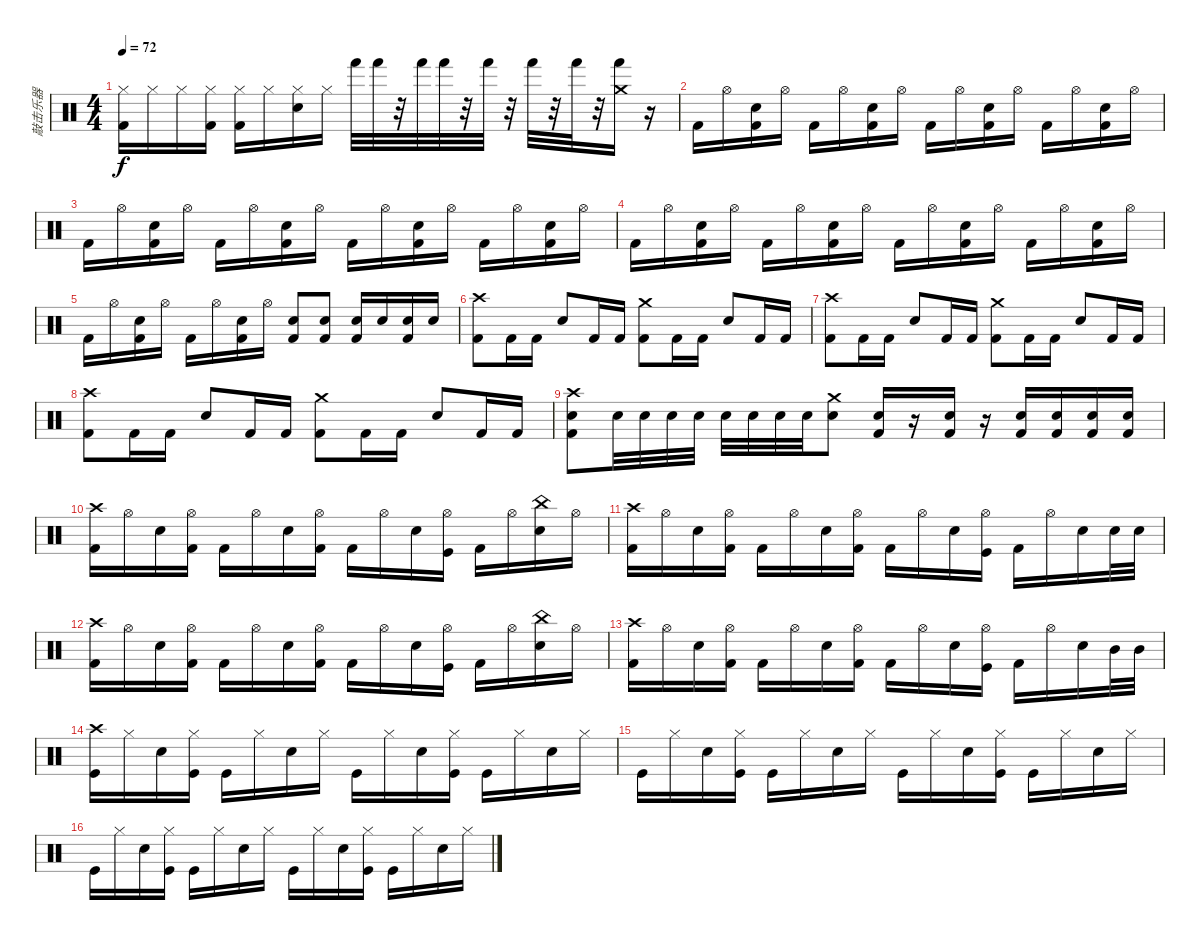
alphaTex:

\track ("敲击乐器" "敲击乐器") {instrument percussion}
\staff {score}
\articulation defaults
\ts (4 4)
\tempo 72
\clef neutral
\ks c
("Hi-Hat (closed)" "Kick (hit) 2").16{dy f} "Hi-Hat (closed)".16 "Hi-Hat (closed)".16 ("Hi-Hat (closed)" "Kick (hit) 2").16 ("Hi-Hat (closed)" "Kick (hit) 2").16 "Hi-Hat (closed)".16 ("Hi-Hat (closed)" "Snare (hit) 2").16 "Hi-Hat (closed)".16 "Hand (hit)".32 "Hand (hit)".32 r.32 "Hand (hit)".32 "Hand (hit)".32 r.32 "Hand (hit)".32 r.32 "Hand (hit)".32 r.32 "Hand (hit)".32 r.32 ("Crash medium (hit)" "Hand (hit)").16 r.16 |
"Kick (hit) 2".16 "Hi-Hat (open)".16 ("Snare (hit) 2" "Kick (hit) 2").16 "Hi-Hat (open)".16 "Kick (hit) 2".16 "Hi-Hat (open)".16 ("Snare (hit) 2" "Kick (hit) 2").16 "Hi-Hat (open)".16 "Kick (hit) 2".16 "Hi-Hat (open)".16 ("Snare (hit) 2" "Kick (hit) 2").16 "Hi-Hat (open)".16 "Kick (hit) 2".16 "Hi-Hat (open)".16 ("Snare (hit) 2" "Kick (hit) 2").16 "Hi-Hat (open)".16 |
"Kick (hit) 2".16 "Hi-Hat (open)".16 ("Snare (hit) 2" "Kick (hit) 2").16 "Hi-Hat (open)".16 "Kick (hit) 2".16 "Hi-Hat (open)".16 ("Snare (hit) 2" "Kick (hit) 2").16 "Hi-Hat (open)".16 "Kick (hit) 2".16 "Hi-Hat (open)".16 ("Snare (hit) 2" "Kick (hit) 2").16 "Hi-Hat (open)".16 "Kick (hit) 2".16 "Hi-Hat (open)".16 ("Snare (hit) 2" "Kick (hit) 2").16 "Hi-Hat (open)".16 |
"Kick (hit) 2".16 "Hi-Hat (open)".16 ("Snare (hit) 2" "Kick (hit) 2").16 "Hi-Hat (open)".16 "Kick (hit) 2".16 "Hi-Hat (open)".16 ("Snare (hit) 2" "Kick (hit) 2").16 "Hi-Hat (open)".16 "Kick (hit) 2".16 "Hi-Hat (open)".16 ("Snare (hit) 2" "Kick (hit) 2").16 "Hi-Hat (open)".16 "Kick (hit) 2".16 "Hi-Hat (open)".16 ("Snare (hit) 2" "Kick (hit) 2").16 "Hi-Hat (open)".16 |
"Kick (hit) 2".16 "Hi-Hat (open)".16 ("Snare (hit) 2" "Kick (hit) 2").16 "Hi-Hat (open)".16 "Kick (hit) 2".16 "Hi-Hat (open)".16 ("Snare (hit) 2" "Kick (hit) 2").16 "Hi-Hat (open)".16 ("Snare (hit) 2" "Kick (hit) 2").8 ("Snare (hit) 2" "Kick (hit) 2").8 ("Snare (hit) 2" "Kick (hit) 2").16 "Snare (hit) 2".16 ("Snare (hit) 2" "Kick (hit) 2").16 "Snare (hit) 2".16 |
("Crash high (hit)" "Kick (hit) 2").8 "Kick (hit) 2".16 "Kick (hit) 2".16 "Snare (hit) 2".8 "Kick (hit) 2".16 "Kick (hit) 2".16 ("Crash medium (hit)" "Kick (hit) 2").8 "Kick (hit) 2".16 "Kick (hit) 2".16 "Snare (hit) 2".8 "Kick (hit) 2".16 "Kick (hit) 2".16 |
("Crash high (hit)" "Kick (hit) 2").8 "Kick (hit) 2".16 "Kick (hit) 2".16 "Snare (hit) 2".8 "Kick (hit) 2".16 "Kick (hit) 2".16 ("Crash medium (hit)" "Kick (hit) 2").8 "Kick (hit) 2".16 "Kick (hit) 2".16 "Snare (hit) 2".8 "Kick (hit) 2".16 "Kick (hit) 2".16 |
("Crash high (hit)" "Kick (hit) 2").8 "Kick (hit) 2".16 "Kick (hit) 2".16 "Snare (hit) 2".8 "Kick (hit) 2".16 "Kick (hit) 2".16 ("Crash medium (hit)" "Kick (hit) 2").8 "Kick (hit) 2".16 "Kick (hit) 2".16 "Snare (hit) 2".8 "Kick (hit) 2".16 "Kick (hit) 2".16 |
("Crash high (hit)" "Snare (hit) 2" "Kick (hit) 2").8 "Snare (hit) 2".32{volume 8} "Snare (hit) 2".32{volume 15} "Snare (hit) 2".32 "Snare (hit) 2".32 "Snare (hit) 2".32 "Snare (hit) 2".32 "Snare (hit) 2".32 "Snare (hit) 2".32 ("Crash medium (hit)" "Snare (hit) 2").8 ("Snare (hit) 2" "Kick (hit) 2").16 r.16 ("Snare (hit) 2" "Kick (hit) 2").16 r.16 ("Snare (hit) 2" "Kick (hit) 2").16 ("Snare (hit) 2" "Kick (hit) 2").16 ("Snare (hit) 2" "Kick (hit) 2").16 ("Snare (hit) 2" "Kick (hit) 2").16 |
("Crash high (hit)" "Kick (hit) 2").16 "Hi-Hat (open)".16 "Snare (hit) 2".16 ("Hi-Hat (open)" "Kick (hit) 2").16 "Kick (hit) 2".16 "Hi-Hat (open)".16 "Snare (hit) 2".16 ("Hi-Hat (open)" "Kick (hit) 2").16 "Kick (hit) 2".16 "Hi-Hat (open)".16 "Snare (hit) 2".16 ("Hi-Hat (open)" "Kick (hit)").16 "Kick (hit) 2".16 "Hi-Hat (open)".16 ("China (hit)" "Snare (hit) 2").16 "Hi-Hat (open)".16 |
("Crash high (hit)" "Kick (hit) 2").16 "Hi-Hat (open)".16 "Snare (hit) 2".16 ("Hi-Hat (open)" "Kick (hit) 2").16 "Kick (hit) 2".16 "Hi-Hat (open)".16 "Snare (hit) 2".16 ("Hi-Hat (open)" "Kick (hit) 2").16 "Kick (hit) 2".16 "Hi-Hat (open)".16 "Snare (hit) 2".16 ("Hi-Hat (open)" "Kick (hit)").16 "Kick (hit) 2".16 "Hi-Hat (open)".16 "Snare (hit) 2".16 "Snare (hit) 2".32 "Snare (hit) 2".32 |
("Crash high (hit)" "Kick (hit) 2").16 "Hi-Hat (open)".16 "Snare (hit) 2".16 ("Hi-Hat (open)" "Kick (hit) 2").16 "Kick (hit) 2".16 "Hi-Hat (open)".16 "Snare (hit) 2".16 ("Hi-Hat (open)" "Kick (hit) 2").16 "Kick (hit) 2".16 "Hi-Hat (open)".16 "Snare (hit) 2".16 ("Hi-Hat (open)" "Kick (hit)").16 "Kick (hit) 2".16 "Hi-Hat (open)".16 ("China (hit)" "Snare (hit) 2").16 "Hi-Hat (open)".16 |
("Crash high (hit)" "Kick (hit) 2").16 "Hi-Hat (open)".16 "Snare (hit) 2".16 ("Hi-Hat (open)" "Kick (hit) 2").16 "Kick (hit) 2".16 "Hi-Hat (open)".16 "Snare (hit) 2".16 ("Hi-Hat (open)" "Kick (hit) 2").16 "Kick (hit) 2".16 "Hi-Hat (open)".16 "Snare (hit) 2".16 ("Hi-Hat (open)" "Kick (hit)").16 "Kick (hit) 2".16 "Hi-Hat (open)".16 "Snare (hit) 2".16 "Mid Tom (hit)".32 "Mid Tom (hit)".32 |
("Crash high (hit)" "Kick (hit)").16 "Hi-Hat (closed)".16 "Snare (hit) 2".16 ("Hi-Hat (closed)" "Kick (hit)").16 "Kick (hit)".16 "Hi-Hat (closed)".16 "Snare (hit) 2".16 "Hi-Hat (closed)".16 "Kick (hit)".16 "Hi-Hat (closed)".16 "Snare (hit) 2".16 ("Hi-Hat (closed)" "Kick (hit)").16 "Kick (hit)".16 "Hi-Hat (closed)".16 "Snare (hit) 2".16 "Hi-Hat (closed)".16 |
"Kick (hit)".16 "Hi-Hat (closed)".16 "Snare (hit) 2".16 ("Hi-Hat (closed)" "Kick (hit)").16 "Kick (hit)".16 "Hi-Hat (closed)".16 "Snare (hit) 2".16 "Hi-Hat (closed)".16 "Kick (hit)".16 "Hi-Hat (closed)".16 "Snare (hit) 2".16 ("Hi-Hat (closed)" "Kick (hit)").16 "Kick (hit)".16 "Hi-Hat (closed)".16 "Snare (hit) 2".16 "Hi-Hat (closed)".16 |
"Kick (hit)".16 "Hi-Hat (closed)".16 "Snare (hit) 2".16 ("Hi-Hat (closed)" "Kick (hit)").16 "Kick (hit)".16 "Hi-Hat (closed)".16 "Snare (hit) 2".16 "Hi-Hat (closed)".16 "Kick (hit)".16 "Hi-Hat (closed)".16 "Snare (hit) 2".16 ("Hi-Hat (closed)" "Kick (hit)").16 "Kick (hit)".16 "Hi-Hat (closed)".16 "Snare (hit) 2".16 "Hi-Hat (closed)".16
